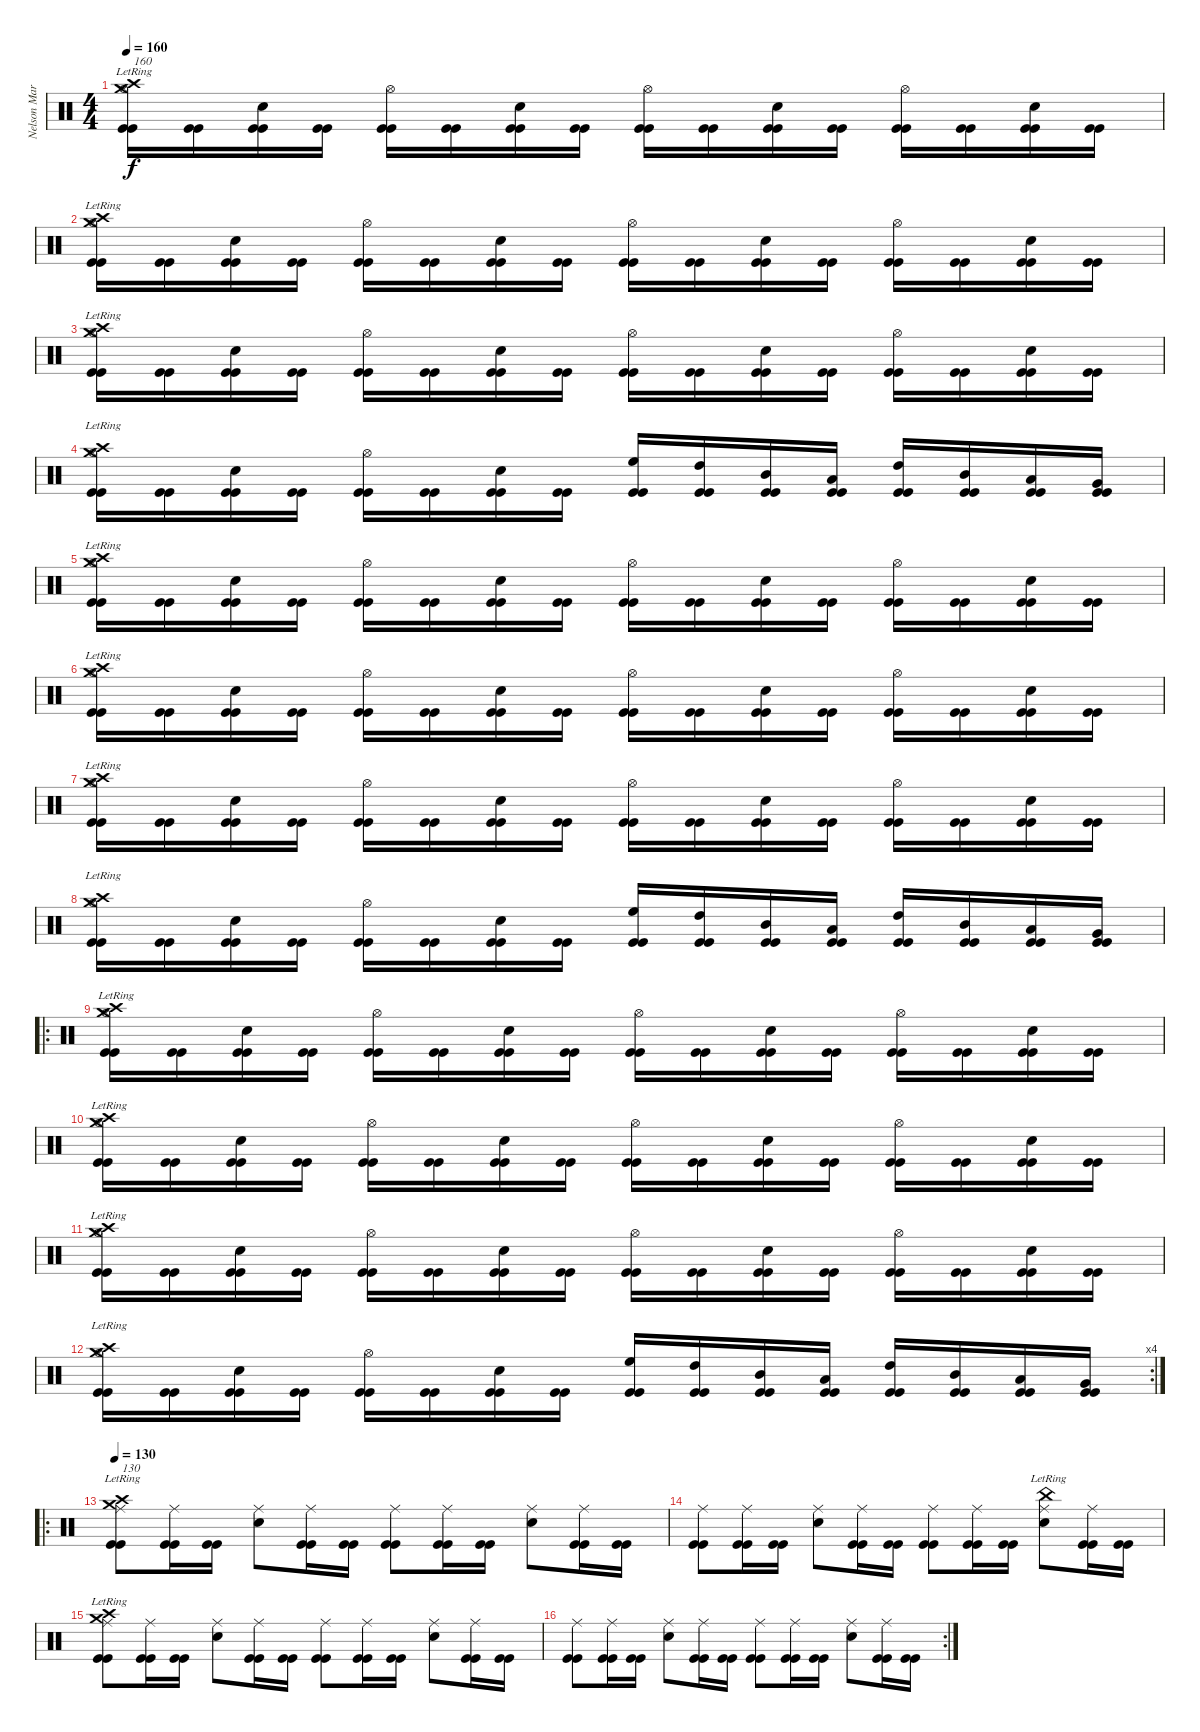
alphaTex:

\track ("Nelson Maria" "Nelson Mar") {instrument percussion}
\staff {score}
\articulation defaults
\ts (4 4)
\tempo 160
\clef neutral
\ks c
("Crash high (hit)"{lr} "Crash medium (hit)"{lr} "Hi-Hat (open)" "Kick (hit)" "Kick (hit)").16{txt "160" dy f} ("Kick (hit)" "Kick (hit)").16 ("Snare (hit) 2" "Kick (hit)" "Kick (hit)").16 ("Kick (hit)" "Kick (hit)").16 ("Hi-Hat (open)" "Kick (hit)" "Kick (hit)").16 ("Kick (hit)" "Kick (hit)").16 ("Snare (hit) 2" "Kick (hit)" "Kick (hit)").16 ("Kick (hit)" "Kick (hit)").16 ("Hi-Hat (open)" "Kick (hit)" "Kick (hit)").16 ("Kick (hit)" "Kick (hit)").16 ("Snare (hit) 2" "Kick (hit)" "Kick (hit)").16 ("Kick (hit)" "Kick (hit)").16 ("Hi-Hat (open)" "Kick (hit)" "Kick (hit)").16 ("Kick (hit)" "Kick (hit)").16 ("Snare (hit) 2" "Kick (hit)" "Kick (hit)").16 ("Kick (hit)" "Kick (hit)").16 |
("Crash high (hit)"{lr} "Crash medium (hit)"{lr} "Hi-Hat (open)" "Kick (hit)" "Kick (hit)").16 ("Kick (hit)" "Kick (hit)").16 ("Snare (hit) 2" "Kick (hit)" "Kick (hit)").16 ("Kick (hit)" "Kick (hit)").16 ("Hi-Hat (open)" "Kick (hit)" "Kick (hit)").16 ("Kick (hit)" "Kick (hit)").16 ("Snare (hit) 2" "Kick (hit)" "Kick (hit)").16 ("Kick (hit)" "Kick (hit)").16 ("Hi-Hat (open)" "Kick (hit)" "Kick (hit)").16 ("Kick (hit)" "Kick (hit)").16 ("Snare (hit) 2" "Kick (hit)" "Kick (hit)").16 ("Kick (hit)" "Kick (hit)").16 ("Hi-Hat (open)" "Kick (hit)" "Kick (hit)").16 ("Kick (hit)" "Kick (hit)").16 ("Snare (hit) 2" "Kick (hit)" "Kick (hit)").16 ("Kick (hit)" "Kick (hit)").16 |
("Crash high (hit)"{lr} "Crash medium (hit)"{lr} "Hi-Hat (open)" "Kick (hit)" "Kick (hit)").16 ("Kick (hit)" "Kick (hit)").16 ("Snare (hit) 2" "Kick (hit)" "Kick (hit)").16 ("Kick (hit)" "Kick (hit)").16 ("Hi-Hat (open)" "Kick (hit)" "Kick (hit)").16 ("Kick (hit)" "Kick (hit)").16 ("Snare (hit) 2" "Kick (hit)" "Kick (hit)").16 ("Kick (hit)" "Kick (hit)").16 ("Hi-Hat (open)" "Kick (hit)" "Kick (hit)").16 ("Kick (hit)" "Kick (hit)").16 ("Snare (hit) 2" "Kick (hit)" "Kick (hit)").16 ("Kick (hit)" "Kick (hit)").16 ("Hi-Hat (open)" "Kick (hit)" "Kick (hit)").16 ("Kick (hit)" "Kick (hit)").16 ("Snare (hit) 2" "Kick (hit)" "Kick (hit)").16 ("Kick (hit)" "Kick (hit)").16 |
("Crash high (hit)"{lr} "Crash medium (hit)"{lr} "Hi-Hat (open)" "Kick (hit)" "Kick (hit)").16 ("Kick (hit)" "Kick (hit)").16 ("Snare (hit) 2" "Kick (hit)" "Kick (hit)").16 ("Kick (hit)" "Kick (hit)").16 ("Hi-Hat (open)" "Kick (hit)" "Kick (hit)").16 ("Kick (hit)" "Kick (hit)").16 ("Snare (hit) 2" "Kick (hit)" "Kick (hit)").16 ("Kick (hit)" "Kick (hit)").16 ("High Floor Tom (hit)" "Kick (hit)" "Kick (hit)").16 ("High Tom (hit)" "Kick (hit)" "Kick (hit)").16 ("Mid Tom (hit)" "Kick (hit)" "Kick (hit)").16 ("Low Tom (hit)" "Kick (hit)" "Kick (hit)").16 ("High Tom (hit)" "Kick (hit)" "Kick (hit)").16 ("Mid Tom (hit)" "Kick (hit)" "Kick (hit)").16 ("Low Tom (hit)" "Kick (hit)" "Kick (hit)").16 ("Very Low Tom (hit)" "Kick (hit)" "Kick (hit)").16 |
("Crash high (hit)"{lr} "Crash medium (hit)"{lr} "Hi-Hat (open)" "Kick (hit)" "Kick (hit)").16 ("Kick (hit)" "Kick (hit)").16 ("Snare (hit) 2" "Kick (hit)" "Kick (hit)").16 ("Kick (hit)" "Kick (hit)").16 ("Hi-Hat (open)" "Kick (hit)" "Kick (hit)").16 ("Kick (hit)" "Kick (hit)").16 ("Snare (hit) 2" "Kick (hit)" "Kick (hit)").16 ("Kick (hit)" "Kick (hit)").16 ("Hi-Hat (open)" "Kick (hit)" "Kick (hit)").16 ("Kick (hit)" "Kick (hit)").16 ("Snare (hit) 2" "Kick (hit)" "Kick (hit)").16 ("Kick (hit)" "Kick (hit)").16 ("Hi-Hat (open)" "Kick (hit)" "Kick (hit)").16 ("Kick (hit)" "Kick (hit)").16 ("Snare (hit) 2" "Kick (hit)" "Kick (hit)").16 ("Kick (hit)" "Kick (hit)").16 |
("Crash high (hit)"{lr} "Crash medium (hit)"{lr} "Hi-Hat (open)" "Kick (hit)" "Kick (hit)").16 ("Kick (hit)" "Kick (hit)").16 ("Snare (hit) 2" "Kick (hit)" "Kick (hit)").16 ("Kick (hit)" "Kick (hit)").16 ("Hi-Hat (open)" "Kick (hit)" "Kick (hit)").16 ("Kick (hit)" "Kick (hit)").16 ("Snare (hit) 2" "Kick (hit)" "Kick (hit)").16 ("Kick (hit)" "Kick (hit)").16 ("Hi-Hat (open)" "Kick (hit)" "Kick (hit)").16 ("Kick (hit)" "Kick (hit)").16 ("Snare (hit) 2" "Kick (hit)" "Kick (hit)").16 ("Kick (hit)" "Kick (hit)").16 ("Hi-Hat (open)" "Kick (hit)" "Kick (hit)").16 ("Kick (hit)" "Kick (hit)").16 ("Snare (hit) 2" "Kick (hit)" "Kick (hit)").16 ("Kick (hit)" "Kick (hit)").16 |
("Crash high (hit)"{lr} "Crash medium (hit)"{lr} "Hi-Hat (open)" "Kick (hit)" "Kick (hit)").16 ("Kick (hit)" "Kick (hit)").16 ("Snare (hit) 2" "Kick (hit)" "Kick (hit)").16 ("Kick (hit)" "Kick (hit)").16 ("Hi-Hat (open)" "Kick (hit)" "Kick (hit)").16 ("Kick (hit)" "Kick (hit)").16 ("Snare (hit) 2" "Kick (hit)" "Kick (hit)").16 ("Kick (hit)" "Kick (hit)").16 ("Hi-Hat (open)" "Kick (hit)" "Kick (hit)").16 ("Kick (hit)" "Kick (hit)").16 ("Snare (hit) 2" "Kick (hit)" "Kick (hit)").16 ("Kick (hit)" "Kick (hit)").16 ("Hi-Hat (open)" "Kick (hit)" "Kick (hit)").16 ("Kick (hit)" "Kick (hit)").16 ("Snare (hit) 2" "Kick (hit)" "Kick (hit)").16 ("Kick (hit)" "Kick (hit)").16 |
("Crash high (hit)"{lr} "Crash medium (hit)"{lr} "Hi-Hat (open)" "Kick (hit)" "Kick (hit)").16 ("Kick (hit)" "Kick (hit)").16 ("Snare (hit) 2" "Kick (hit)" "Kick (hit)").16 ("Kick (hit)" "Kick (hit)").16 ("Hi-Hat (open)" "Kick (hit)" "Kick (hit)").16 ("Kick (hit)" "Kick (hit)").16 ("Snare (hit) 2" "Kick (hit)" "Kick (hit)").16 ("Kick (hit)" "Kick (hit)").16 ("High Floor Tom (hit)" "Kick (hit)" "Kick (hit)").16 ("High Tom (hit)" "Kick (hit)" "Kick (hit)").16 ("Mid Tom (hit)" "Kick (hit)" "Kick (hit)").16 ("Low Tom (hit)" "Kick (hit)" "Kick (hit)").16 ("High Tom (hit)" "Kick (hit)" "Kick (hit)").16 ("Mid Tom (hit)" "Kick (hit)" "Kick (hit)").16 ("Low Tom (hit)" "Kick (hit)" "Kick (hit)").16 ("Very Low Tom (hit)" "Kick (hit)" "Kick (hit)").16 |
\ro
("Crash high (hit)"{lr} "Crash medium (hit)"{lr} "Hi-Hat (open)" "Kick (hit)" "Kick (hit)").16 ("Kick (hit)" "Kick (hit)").16 ("Snare (hit) 2" "Kick (hit)" "Kick (hit)").16 ("Kick (hit)" "Kick (hit)").16 ("Hi-Hat (open)" "Kick (hit)" "Kick (hit)").16 ("Kick (hit)" "Kick (hit)").16 ("Snare (hit) 2" "Kick (hit)" "Kick (hit)").16 ("Kick (hit)" "Kick (hit)").16 ("Hi-Hat (open)" "Kick (hit)" "Kick (hit)").16 ("Kick (hit)" "Kick (hit)").16 ("Snare (hit) 2" "Kick (hit)" "Kick (hit)").16 ("Kick (hit)" "Kick (hit)").16 ("Hi-Hat (open)" "Kick (hit)" "Kick (hit)").16 ("Kick (hit)" "Kick (hit)").16 ("Snare (hit) 2" "Kick (hit)" "Kick (hit)").16 ("Kick (hit)" "Kick (hit)").16 |
("Crash high (hit)"{lr} "Crash medium (hit)"{lr} "Hi-Hat (open)" "Kick (hit)" "Kick (hit)").16 ("Kick (hit)" "Kick (hit)").16 ("Snare (hit) 2" "Kick (hit)" "Kick (hit)").16 ("Kick (hit)" "Kick (hit)").16 ("Hi-Hat (open)" "Kick (hit)" "Kick (hit)").16 ("Kick (hit)" "Kick (hit)").16 ("Snare (hit) 2" "Kick (hit)" "Kick (hit)").16 ("Kick (hit)" "Kick (hit)").16 ("Hi-Hat (open)" "Kick (hit)" "Kick (hit)").16 ("Kick (hit)" "Kick (hit)").16 ("Snare (hit) 2" "Kick (hit)" "Kick (hit)").16 ("Kick (hit)" "Kick (hit)").16 ("Hi-Hat (open)" "Kick (hit)" "Kick (hit)").16 ("Kick (hit)" "Kick (hit)").16 ("Snare (hit) 2" "Kick (hit)" "Kick (hit)").16 ("Kick (hit)" "Kick (hit)").16 |
("Crash high (hit)"{lr} "Crash medium (hit)"{lr} "Hi-Hat (open)" "Kick (hit)" "Kick (hit)").16 ("Kick (hit)" "Kick (hit)").16 ("Snare (hit) 2" "Kick (hit)" "Kick (hit)").16 ("Kick (hit)" "Kick (hit)").16 ("Hi-Hat (open)" "Kick (hit)" "Kick (hit)").16 ("Kick (hit)" "Kick (hit)").16 ("Snare (hit) 2" "Kick (hit)" "Kick (hit)").16 ("Kick (hit)" "Kick (hit)").16 ("Hi-Hat (open)" "Kick (hit)" "Kick (hit)").16 ("Kick (hit)" "Kick (hit)").16 ("Snare (hit) 2" "Kick (hit)" "Kick (hit)").16 ("Kick (hit)" "Kick (hit)").16 ("Hi-Hat (open)" "Kick (hit)" "Kick (hit)").16 ("Kick (hit)" "Kick (hit)").16 ("Snare (hit) 2" "Kick (hit)" "Kick (hit)").16 ("Kick (hit)" "Kick (hit)").16 |
\rc 4
("Crash high (hit)"{lr} "Crash medium (hit)"{lr} "Hi-Hat (open)" "Kick (hit)" "Kick (hit)").16 ("Kick (hit)" "Kick (hit)").16 ("Snare (hit) 2" "Kick (hit)" "Kick (hit)").16 ("Kick (hit)" "Kick (hit)").16 ("Hi-Hat (open)" "Kick (hit)" "Kick (hit)").16 ("Kick (hit)" "Kick (hit)").16 ("Snare (hit) 2" "Kick (hit)" "Kick (hit)").16 ("Kick (hit)" "Kick (hit)").16 ("High Floor Tom (hit)" "Kick (hit)" "Kick (hit)").16 ("High Tom (hit)" "Kick (hit)" "Kick (hit)").16 ("Mid Tom (hit)" "Kick (hit)" "Kick (hit)").16 ("Low Tom (hit)" "Kick (hit)" "Kick (hit)").16 ("High Tom (hit)" "Kick (hit)" "Kick (hit)").16 ("Mid Tom (hit)" "Kick (hit)" "Kick (hit)").16 ("Low Tom (hit)" "Kick (hit)" "Kick (hit)").16 ("Very Low Tom (hit)" "Kick (hit)" "Kick (hit)").16 |
\ro
\tempo 130
("Crash high (hit)"{lr} "Crash medium (hit)"{lr} "Ride (middle)" "Kick (hit)" "Kick (hit)").8{txt "130"} ("Ride (middle)" "Kick (hit)" "Kick (hit)").16 ("Kick (hit)" "Kick (hit)").16 ("Snare (hit) 2" "Ride (middle)").8 ("Ride (middle)" "Kick (hit)" "Kick (hit)").16 ("Kick (hit)" "Kick (hit)").16 ("Ride (middle)" "Kick (hit)" "Kick (hit)").8 ("Ride (middle)" "Kick (hit)" "Kick (hit)").16 ("Kick (hit)" "Kick (hit)").16 ("Snare (hit) 2" "Ride (middle)").8 ("Ride (middle)" "Kick (hit)" "Kick (hit)").16 ("Kick (hit)" "Kick (hit)").16 |
("Ride (middle)" "Kick (hit)" "Kick (hit)").8 ("Ride (middle)" "Kick (hit)" "Kick (hit)").16 ("Kick (hit)" "Kick (hit)").16 ("Snare (hit) 2" "Ride (middle)").8 ("Ride (middle)" "Kick (hit)" "Kick (hit)").16 ("Kick (hit)" "Kick (hit)").16 ("Ride (middle)" "Kick (hit)" "Kick (hit)").8 ("Ride (middle)" "Kick (hit)" "Kick (hit)").16 ("Kick (hit)" "Kick (hit)").16 ("China (hit)"{lr} "Snare (hit) 2" "Ride (middle)").8 ("Ride (middle)" "Kick (hit)" "Kick (hit)").16 ("Kick (hit)" "Kick (hit)").16 |
("Crash high (hit)"{lr} "Crash medium (hit)"{lr} "Ride (middle)" "Kick (hit)" "Kick (hit)").8 ("Ride (middle)" "Kick (hit)" "Kick (hit)").16 ("Kick (hit)" "Kick (hit)").16 ("Snare (hit) 2" "Ride (middle)").8 ("Ride (middle)" "Kick (hit)" "Kick (hit)").16 ("Kick (hit)" "Kick (hit)").16 ("Ride (middle)" "Kick (hit)" "Kick (hit)").8 ("Ride (middle)" "Kick (hit)" "Kick (hit)").16 ("Kick (hit)" "Kick (hit)").16 ("Snare (hit) 2" "Ride (middle)").8 ("Ride (middle)" "Kick (hit)" "Kick (hit)").16 ("Kick (hit)" "Kick (hit)").16 |
\rc 2
("Ride (middle)" "Kick (hit)" "Kick (hit)").8 ("Ride (middle)" "Kick (hit)" "Kick (hit)").16 ("Kick (hit)" "Kick (hit)").16 ("Snare (hit) 2" "Ride (middle)").8 ("Ride (middle)" "Kick (hit)" "Kick (hit)").16 ("Kick (hit)" "Kick (hit)").16 ("Ride (middle)" "Kick (hit)" "Kick (hit)").8 ("Ride (middle)" "Kick (hit)" "Kick (hit)").16 ("Kick (hit)" "Kick (hit)").16 ("Snare (hit) 2" "Ride (middle)").8 ("Ride (middle)" "Kick (hit)" "Kick (hit)").16 ("Kick (hit)" "Kick (hit)").16
